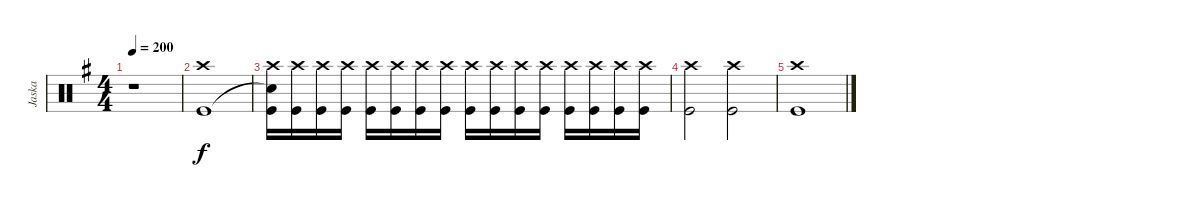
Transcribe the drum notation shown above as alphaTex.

\track ("Jaska" "Jaska") {instrument percussion}
\staff {score}
\articulation defaults
\ts (4 4)
\tempo 200
\clef neutral
\ks g
r.1{dy f} |
("Crash high (hit)" "Kick (hit)").1 |
("Crash high (hit)" "Snare (hit)"{t} "Kick (hit)").16 ("Crash high (hit)" "Kick (hit)").16 ("Crash high (hit)" "Kick (hit)").16 ("Crash high (hit)" "Kick (hit)").16 ("Crash high (hit)" "Kick (hit)").16 ("Crash high (hit)" "Kick (hit)").16 ("Crash high (hit)" "Kick (hit)").16 ("Crash high (hit)" "Kick (hit)").16 ("Crash high (hit)" "Kick (hit)").16 ("Crash high (hit)" "Kick (hit)").16 ("Crash high (hit)" "Kick (hit)").16 ("Crash high (hit)" "Kick (hit)").16 ("Crash high (hit)" "Kick (hit)").16 ("Crash high (hit)" "Kick (hit)").16 ("Crash high (hit)" "Kick (hit)").16 ("Crash high (hit)" "Kick (hit)").16 |
("Crash high (hit)" "Kick (hit)").2 ("Crash high (hit)" "Kick (hit)").2 |
("Crash high (hit)" "Kick (hit)").1
